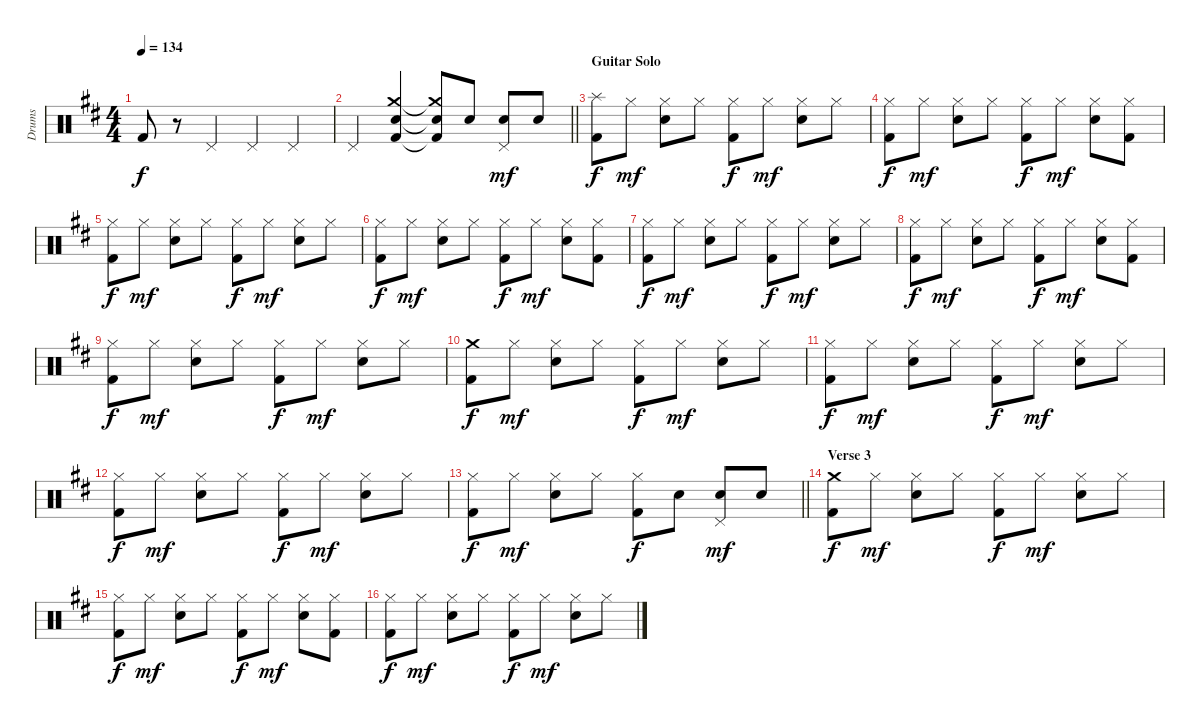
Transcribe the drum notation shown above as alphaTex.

\track ("Drums" "Drums") {instrument percussion}
\staff {score}
\articulation defaults
\ts (4 4)
\tempo 134
\clef neutral
\ks d "Kick (hit) 2".8{dy f}
r.8 "Pedal Hi-Hat (hit)".4 "Pedal Hi-Hat (hit)".4 "Pedal Hi-Hat (hit)".4 |
\barLineRight lightlight "Pedal Hi-Hat (hit)".4
("Crash medium (hit)" "Snare (hit) 2" "Kick (hit) 2").4 ("Crash medium (hit)"{t} "Snare (hit) 2"{t} "Kick (hit) 2"{t}).8 "Snare (hit) 2".8 ("Pedal Hi-Hat (hit)" "Snare (hit) 2").8{dy mf} "Snare (hit) 2".8 |
\section ("" "Guitar Solo")
("Splash (hit)" "Kick (hit) 2").8{dy f} "Hi-Hat (closed)".8{dy mf} ("Hi-Hat (closed)" "Snare (hit) 2").8 "Hi-Hat (closed)".8 ("Hi-Hat (closed)" "Kick (hit) 2").8{dy f} "Hi-Hat (closed)".8{dy mf} ("Hi-Hat (closed)" "Snare (hit) 2").8 "Hi-Hat (closed)".8 |
("Hi-Hat (closed)" "Kick (hit) 2").8{dy f} "Hi-Hat (closed)".8{dy mf} ("Hi-Hat (closed)" "Snare (hit) 2").8 "Hi-Hat (closed)".8 ("Hi-Hat (closed)" "Kick (hit) 2").8{dy f} "Hi-Hat (closed)".8{dy mf} ("Hi-Hat (closed)" "Snare (hit) 2").8 ("Hi-Hat (closed)" "Kick (hit) 2").8 |
("Hi-Hat (closed)" "Kick (hit) 2").8{dy f} "Hi-Hat (closed)".8{dy mf} ("Hi-Hat (closed)" "Snare (hit) 2").8 "Hi-Hat (closed)".8 ("Hi-Hat (closed)" "Kick (hit) 2").8{dy f} "Hi-Hat (closed)".8{dy mf} ("Hi-Hat (closed)" "Snare (hit) 2").8 "Hi-Hat (closed)".8 |
("Hi-Hat (closed)" "Kick (hit) 2").8{dy f} "Hi-Hat (closed)".8{dy mf} ("Hi-Hat (closed)" "Snare (hit) 2").8 "Hi-Hat (closed)".8 ("Hi-Hat (closed)" "Kick (hit) 2").8{dy f} "Hi-Hat (closed)".8{dy mf} ("Hi-Hat (closed)" "Snare (hit) 2").8 ("Hi-Hat (closed)" "Kick (hit) 2").8 |
("Hi-Hat (closed)" "Kick (hit) 2").8{dy f} "Hi-Hat (closed)".8{dy mf} ("Hi-Hat (closed)" "Snare (hit) 2").8 "Hi-Hat (closed)".8 ("Hi-Hat (closed)" "Kick (hit) 2").8{dy f} "Hi-Hat (closed)".8{dy mf} ("Hi-Hat (closed)" "Snare (hit) 2").8 "Hi-Hat (closed)".8 |
("Hi-Hat (closed)" "Kick (hit) 2").8{dy f} "Hi-Hat (closed)".8{dy mf} ("Hi-Hat (closed)" "Snare (hit) 2").8 "Hi-Hat (closed)".8 ("Hi-Hat (closed)" "Kick (hit) 2").8{dy f} "Hi-Hat (closed)".8{dy mf} ("Hi-Hat (closed)" "Snare (hit) 2").8 ("Hi-Hat (closed)" "Kick (hit) 2").8 |
("Hi-Hat (closed)" "Kick (hit) 2").8{dy f} "Hi-Hat (closed)".8{dy mf} ("Hi-Hat (closed)" "Snare (hit) 2").8 "Hi-Hat (closed)".8 ("Hi-Hat (closed)" "Kick (hit) 2").8{dy f} "Hi-Hat (closed)".8{dy mf} ("Hi-Hat (closed)" "Snare (hit) 2").8 "Hi-Hat (closed)".8 |
("Crash medium (hit)" "Kick (hit) 2").8{dy f} "Hi-Hat (closed)".8{dy mf} ("Hi-Hat (closed)" "Snare (hit) 2").8 "Hi-Hat (closed)".8 ("Hi-Hat (closed)" "Kick (hit) 2").8{dy f} "Hi-Hat (closed)".8{dy mf} ("Hi-Hat (closed)" "Snare (hit) 2").8 "Hi-Hat (closed)".8 |
("Hi-Hat (closed)" "Kick (hit) 2").8{dy f} "Hi-Hat (closed)".8{dy mf} ("Hi-Hat (closed)" "Snare (hit) 2").8 "Hi-Hat (closed)".8 ("Hi-Hat (closed)" "Kick (hit) 2").8{dy f} "Hi-Hat (closed)".8{dy mf} ("Hi-Hat (closed)" "Snare (hit) 2").8 "Hi-Hat (closed)".8 |
("Hi-Hat (closed)" "Kick (hit) 2").8{dy f} "Hi-Hat (closed)".8{dy mf} ("Hi-Hat (closed)" "Snare (hit) 2").8 "Hi-Hat (closed)".8 ("Hi-Hat (closed)" "Kick (hit) 2").8{dy f} "Hi-Hat (closed)".8{dy mf} ("Hi-Hat (closed)" "Snare (hit) 2").8 "Hi-Hat (closed)".8 |
\barLineRight lightlight
("Hi-Hat (closed)" "Kick (hit) 2").8{dy f} "Hi-Hat (closed)".8{dy mf} ("Hi-Hat (closed)" "Snare (hit) 2").8 "Hi-Hat (closed)".8 ("Hi-Hat (closed)" "Kick (hit) 2").8{dy f} "Snare (hit) 2".8 ("Pedal Hi-Hat (hit)" "Snare (hit) 2").8{dy mf} "Snare (hit) 2".8 |
\section ("" "Verse 3")
("Crash medium (hit)" "Kick (hit) 2").8{dy f} "Hi-Hat (closed)".8{dy mf} ("Hi-Hat (closed)" "Snare (hit) 2").8 "Hi-Hat (closed)".8 ("Hi-Hat (closed)" "Kick (hit) 2").8{dy f} "Hi-Hat (closed)".8{dy mf} ("Hi-Hat (closed)" "Snare (hit) 2").8 "Hi-Hat (closed)".8 |
("Hi-Hat (closed)" "Kick (hit) 2").8{dy f} "Hi-Hat (closed)".8{dy mf} ("Hi-Hat (closed)" "Snare (hit) 2").8 "Hi-Hat (closed)".8 ("Hi-Hat (closed)" "Kick (hit) 2").8{dy f} "Hi-Hat (closed)".8{dy mf} ("Hi-Hat (closed)" "Snare (hit) 2").8 ("Hi-Hat (closed)" "Kick (hit) 2").8 |
("Hi-Hat (closed)" "Kick (hit) 2").8{dy f} "Hi-Hat (closed)".8{dy mf} ("Hi-Hat (closed)" "Snare (hit) 2").8 "Hi-Hat (closed)".8 ("Hi-Hat (closed)" "Kick (hit) 2").8{dy f} "Hi-Hat (closed)".8{dy mf} ("Hi-Hat (closed)" "Snare (hit) 2").8 "Hi-Hat (closed)".8
